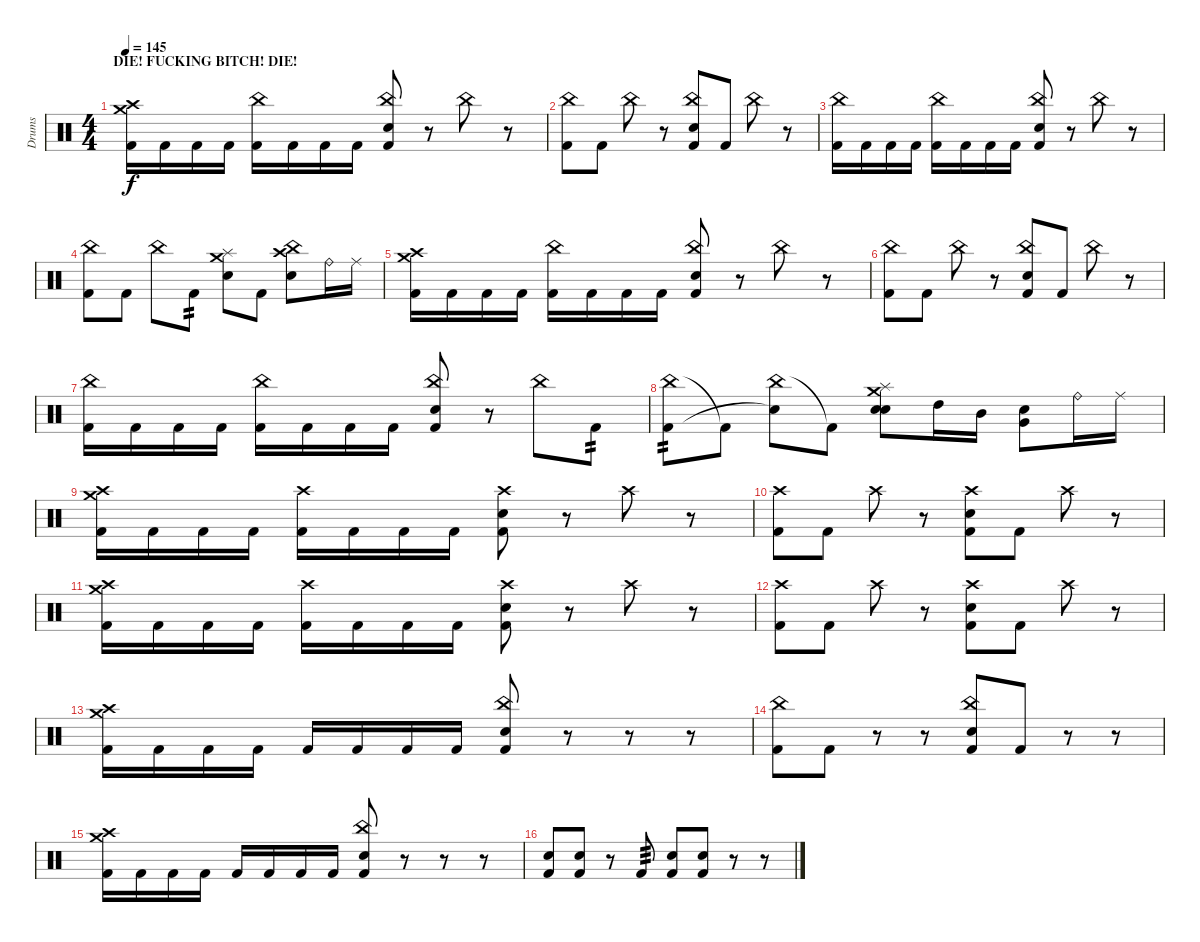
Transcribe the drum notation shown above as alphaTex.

\track ("Drums" "Drums") {instrument percussion}
\staff {score}
\articulation defaults
\ts (4 4)
\section ("" "DIE! FUCKING BITCH! DIE!")
\tempo 145
\clef neutral
\ks c
("Crash medium (hit)" "Crash high (hit)" "Kick (hit) 2").16{dy f} "Kick (hit) 2".16 "Kick (hit) 2".16 "Kick (hit) 2".16 ("China (hit)" "Kick (hit) 2").16 "Kick (hit) 2".16 "Kick (hit) 2".16 "Kick (hit) 2".16 ("China (hit)" "Electric Snare (hit)" "Kick (hit) 2").8 r.8 "China (hit)".8 r.8 |
("China (hit)" "Kick (hit) 2").8 "Kick (hit) 2".8 "China (hit)".8 r.8 ("China (hit)" "Electric Snare (hit)" "Kick (hit) 2").8 "Kick (hit) 2".8 "China (hit)".8 r.8 |
("China (hit)" "Kick (hit) 2").16 "Kick (hit) 2".16 "Kick (hit) 2".16 "Kick (hit) 2".16 ("China (hit)" "Kick (hit) 2").16 "Kick (hit) 2".16 "Kick (hit) 2".16 "Kick (hit) 2".16 ("China (hit)" "Electric Snare (hit)" "Kick (hit) 2").8 r.8 "China (hit)".8 r.8 |
("China (hit)" "Kick (hit) 2").8 "Kick (hit) 2".8 "China (hit)".8 "Kick (hit) 2".8{tp 2} ("Splash (hit)" "Crash medium (hit)" "Electric Snare (hit)").8 "Kick (hit) 2".8 ("Crash high (hit)" "China (hit)" "Electric Snare (hit)").8 "Ride (bell)".16 "Ride (middle)".16 |
("Crash medium (hit)" "Crash high (hit)" "Kick (hit) 2").16 "Kick (hit) 2".16 "Kick (hit) 2".16 "Kick (hit) 2".16 ("China (hit)" "Kick (hit) 2").16 "Kick (hit) 2".16 "Kick (hit) 2".16 "Kick (hit) 2".16 ("China (hit)" "Electric Snare (hit)" "Kick (hit) 2").8 r.8 "China (hit)".8 r.8 |
("China (hit)" "Kick (hit) 2").8 "Kick (hit) 2".8 "China (hit)".8 r.8 ("China (hit)" "Electric Snare (hit)" "Kick (hit) 2").8 "Kick (hit) 2".8 "China (hit)".8 r.8 |
("China (hit)" "Kick (hit) 2").16 "Kick (hit) 2".16 "Kick (hit) 2".16 "Kick (hit) 2".16 ("China (hit)" "Kick (hit) 2").16 "Kick (hit) 2".16 "Kick (hit) 2".16 "Kick (hit) 2".16 ("China (hit)" "Electric Snare (hit)" "Kick (hit) 2").8 r.8 "China (hit)".8 "Kick (hit) 2".8{tp 2} |
("China (hit)" "Kick (hit) 2").8{tp 2} "Kick (hit) 2"{t}.8 ("China (hit)" "Snare (hit)"{t}).8 "Kick (hit) 2"{t}.8 ("Splash (hit)" "Crash medium (hit)" "Electric Snare (hit)" "Snare (hit)").8 "High Tom (hit)".16 "Mid Tom (hit)".16 ("Very Low Tom (hit)" "Electric Snare (hit)").8 "Ride (bell)".16 "Ride (middle)".16 |
("Crash medium (hit)" "Crash high (hit)" "Kick (hit) 2").16 "Kick (hit) 2".16 "Kick (hit) 2".16 "Kick (hit) 2".16 ("Crash high (hit)" "Kick (hit) 2").16 "Kick (hit) 2".16 "Kick (hit) 2".16 "Kick (hit) 2".16 ("Crash high (hit)" "Electric Snare (hit)" "Kick (hit) 2").8 r.8 "Crash high (hit)".8 r.8 |
("Crash high (hit)" "Kick (hit) 2").8 "Kick (hit) 2".8 "Crash high (hit)".8 r.8 ("Crash high (hit)" "Electric Snare (hit)" "Kick (hit) 2").8 "Kick (hit) 2".8 "Crash high (hit)".8 r.8 |
("Crash medium (hit)" "Crash high (hit)" "Kick (hit) 2").16 "Kick (hit) 2".16 "Kick (hit) 2".16 "Kick (hit) 2".16 ("Crash high (hit)" "Kick (hit) 2").16 "Kick (hit) 2".16 "Kick (hit) 2".16 "Kick (hit) 2".16 ("Crash high (hit)" "Electric Snare (hit)" "Kick (hit) 2").8 r.8 "Crash high (hit)".8 r.8 |
("Crash high (hit)" "Kick (hit) 2").8 "Kick (hit) 2".8 "Crash high (hit)".8 r.8 ("Crash high (hit)" "Electric Snare (hit)" "Kick (hit) 2").8 "Kick (hit) 2".8 "Crash high (hit)".8 r.8 |
("Crash medium (hit)" "Crash high (hit)" "Kick (hit) 2").16 "Kick (hit) 2".16 "Kick (hit) 2".16 "Kick (hit) 2".16 "Kick (hit) 2".16 "Kick (hit) 2".16 "Kick (hit) 2".16 "Kick (hit) 2".16 ("China (hit)" "Electric Snare (hit)" "Kick (hit) 2").8 r.8 r.8 r.8 |
("China (hit)" "Kick (hit) 2").8 "Kick (hit) 2".8 r.8 r.8 ("China (hit)" "Electric Snare (hit)" "Kick (hit) 2").8 "Kick (hit) 2".8 r.8 r.8 |
("Crash medium (hit)" "Crash high (hit)" "Kick (hit) 2").16 "Kick (hit) 2".16 "Kick (hit) 2".16 "Kick (hit) 2".16 "Kick (hit) 2".16 "Kick (hit) 2".16 "Kick (hit) 2".16 "Kick (hit) 2".16 ("China (hit)" "Electric Snare (hit)" "Kick (hit) 2").8 r.8 r.8 r.8 |
("Electric Snare (hit)" "Kick (hit) 2").8 ("Electric Snare (hit)" "Kick (hit) 2").8 r.8 "Kick (hit) 2".8{tp 3} ("Electric Snare (hit)" "Kick (hit) 2").8 ("Electric Snare (hit)" "Kick (hit) 2").8 r.8 r.8
